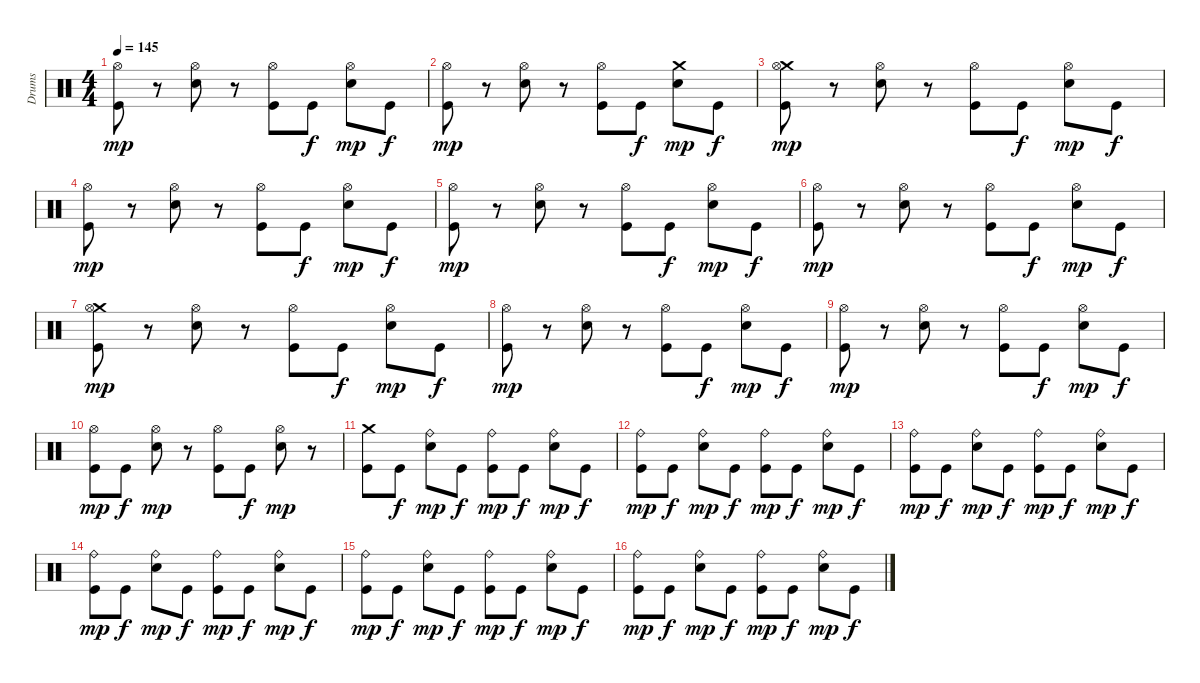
\track ("Drums" "Drums") {instrument percussion}
\staff {score}
\articulation defaults
\ts (4 4)
\tempo 145
\clef neutral
\ks c
("Kick (hit)" "Hi-Hat (open)").8{dy mp} r.8 ("Snare (hit) 2" "Hi-Hat (open)").8 r.8 ("Kick (hit)" "Hi-Hat (open)").8 "Kick (hit)".8{dy f} ("Snare (hit) 2" "Hi-Hat (open)").8{dy mp} "Kick (hit)".8{dy f} |
("Kick (hit)" "Hi-Hat (open)").8{dy mp} r.8 ("Snare (hit) 2" "Hi-Hat (open)").8 r.8 ("Kick (hit)" "Hi-Hat (open)").8 "Kick (hit)".8{dy f} ("Snare (hit) 2" "Crash medium (hit)").8{dy mp} "Kick (hit)".8{dy f} |
("Kick (hit)" "Crash medium (hit)" "Hi-Hat (open)").8{dy mp} r.8 ("Snare (hit) 2" "Hi-Hat (open)").8 r.8 ("Kick (hit)" "Hi-Hat (open)").8 "Kick (hit)".8{dy f} ("Snare (hit) 2" "Hi-Hat (open)").8{dy mp} "Kick (hit)".8{dy f} |
("Kick (hit)" "Hi-Hat (open)").8{dy mp} r.8 ("Snare (hit) 2" "Hi-Hat (open)").8 r.8 ("Kick (hit)" "Hi-Hat (open)").8 "Kick (hit)".8{dy f} ("Snare (hit) 2" "Hi-Hat (open)").8{dy mp} "Kick (hit)".8{dy f} |
("Kick (hit)" "Hi-Hat (open)").8{dy mp} r.8 ("Snare (hit) 2" "Hi-Hat (open)").8 r.8 ("Kick (hit)" "Hi-Hat (open)").8 "Kick (hit)".8{dy f} ("Snare (hit) 2" "Hi-Hat (open)").8{dy mp} "Kick (hit)".8{dy f} |
("Kick (hit)" "Hi-Hat (open)").8{dy mp} r.8 ("Snare (hit) 2" "Hi-Hat (open)").8 r.8 ("Kick (hit)" "Hi-Hat (open)").8 "Kick (hit)".8{dy f} ("Snare (hit) 2" "Hi-Hat (open)").8{dy mp} "Kick (hit)".8{dy f} |
("Kick (hit)" "Crash medium (hit)" "Hi-Hat (open)").8{dy mp} r.8 ("Snare (hit) 2" "Hi-Hat (open)").8 r.8 ("Kick (hit)" "Hi-Hat (open)").8 "Kick (hit)".8{dy f} ("Snare (hit) 2" "Hi-Hat (open)").8{dy mp} "Kick (hit)".8{dy f} |
("Kick (hit)" "Hi-Hat (open)").8{dy mp} r.8 ("Snare (hit) 2" "Hi-Hat (open)").8 r.8 ("Kick (hit)" "Hi-Hat (open)").8 "Kick (hit)".8{dy f} ("Snare (hit) 2" "Hi-Hat (open)").8{dy mp} "Kick (hit)".8{dy f} |
("Kick (hit)" "Hi-Hat (open)").8{dy mp} r.8 ("Snare (hit) 2" "Hi-Hat (open)").8 r.8 ("Kick (hit)" "Hi-Hat (open)").8 "Kick (hit)".8{dy f} ("Snare (hit) 2" "Hi-Hat (open)").8{dy mp} "Kick (hit)".8{dy f} |
("Kick (hit)" "Hi-Hat (open)").8{dy mp} "Kick (hit)".8{dy f} ("Snare (hit) 2" "Hi-Hat (open)").8{dy mp} r.8 ("Kick (hit)" "Hi-Hat (open)").8 "Kick (hit)".8{dy f} ("Snare (hit) 2" "Hi-Hat (open)").8{dy mp} r.8 |
("Kick (hit)" "Crash medium (hit)").8 "Kick (hit)".8{dy f} ("Snare (hit) 2" "Ride (bell)").8{dy mp} "Kick (hit)".8{dy f} ("Kick (hit)" "Ride (bell)").8{dy mp} "Kick (hit)".8{dy f} ("Snare (hit) 2" "Ride (bell)").8{dy mp} "Kick (hit)".8{dy f} |
("Kick (hit)" "Ride (bell)").8{dy mp} "Kick (hit)".8{dy f} ("Snare (hit) 2" "Ride (bell)").8{dy mp} "Kick (hit)".8{dy f} ("Kick (hit)" "Ride (bell)").8{dy mp} "Kick (hit)".8{dy f} ("Snare (hit) 2" "Ride (bell)").8{dy mp} "Kick (hit)".8{dy f} |
("Kick (hit)" "Ride (bell)").8{dy mp} "Kick (hit)".8{dy f} ("Snare (hit) 2" "Ride (bell)").8{dy mp} "Kick (hit)".8{dy f} ("Kick (hit)" "Ride (bell)").8{dy mp} "Kick (hit)".8{dy f} ("Snare (hit) 2" "Ride (bell)").8{dy mp} "Kick (hit)".8{dy f} |
("Kick (hit)" "Ride (bell)").8{dy mp} "Kick (hit)".8{dy f} ("Snare (hit) 2" "Ride (bell)").8{dy mp} "Kick (hit)".8{dy f} ("Kick (hit)" "Ride (bell)").8{dy mp} "Kick (hit)".8{dy f} ("Snare (hit) 2" "Ride (bell)").8{dy mp} "Kick (hit)".8{dy f} |
("Kick (hit)" "Ride (bell)").8{dy mp} "Kick (hit)".8{dy f} ("Snare (hit) 2" "Ride (bell)").8{dy mp} "Kick (hit)".8{dy f} ("Kick (hit)" "Ride (bell)").8{dy mp} "Kick (hit)".8{dy f} ("Snare (hit) 2" "Ride (bell)").8{dy mp} "Kick (hit)".8{dy f} |
("Kick (hit)" "Ride (bell)").8{dy mp} "Kick (hit)".8{dy f} ("Snare (hit) 2" "Ride (bell)").8{dy mp} "Kick (hit)".8{dy f} ("Kick (hit)" "Ride (bell)").8{dy mp} "Kick (hit)".8{dy f} ("Snare (hit) 2" "Ride (bell)").8{dy mp} "Kick (hit)".8{dy f}
